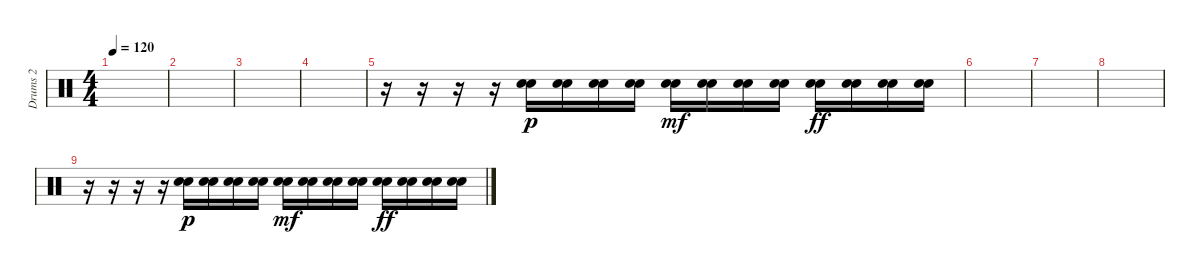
\track ("Drums 2" "Drums 2") {instrument percussion}
\staff {score}
\articulation defaults
\ts (4 4)
\tempo 120
\clef neutral
\ks c
|
|
|
|
r.16 r.16 r.16 r.16 ("Snare (hit) 2" "Snare (hit)").16{dy p} ("Snare (hit) 2" "Snare (hit)").16 ("Snare (hit) 2" "Snare (hit)").16 ("Snare (hit) 2" "Snare (hit)").16 ("Snare (hit) 2" "Snare (hit)").16{dy mf} ("Snare (hit) 2" "Snare (hit)").16 ("Snare (hit) 2" "Snare (hit)").16 ("Snare (hit) 2" "Snare (hit)").16 ("Snare (hit) 2" "Snare (hit)").16{dy ff} ("Snare (hit) 2" "Snare (hit)").16 ("Snare (hit) 2" "Snare (hit)").16 ("Snare (hit) 2" "Snare (hit)").16 |
|
|
|
r.16 r.16 r.16 r.16 ("Snare (hit) 2" "Snare (hit)").16{dy p} ("Snare (hit) 2" "Snare (hit)").16 ("Snare (hit) 2" "Snare (hit)").16 ("Snare (hit) 2" "Snare (hit)").16 ("Snare (hit) 2" "Snare (hit)").16{dy mf} ("Snare (hit) 2" "Snare (hit)").16 ("Snare (hit) 2" "Snare (hit)").16 ("Snare (hit) 2" "Snare (hit)").16 ("Snare (hit) 2" "Snare (hit)").16{dy ff} ("Snare (hit) 2" "Snare (hit)").16 ("Snare (hit) 2" "Snare (hit)").16 ("Snare (hit) 2" "Snare (hit)").16
